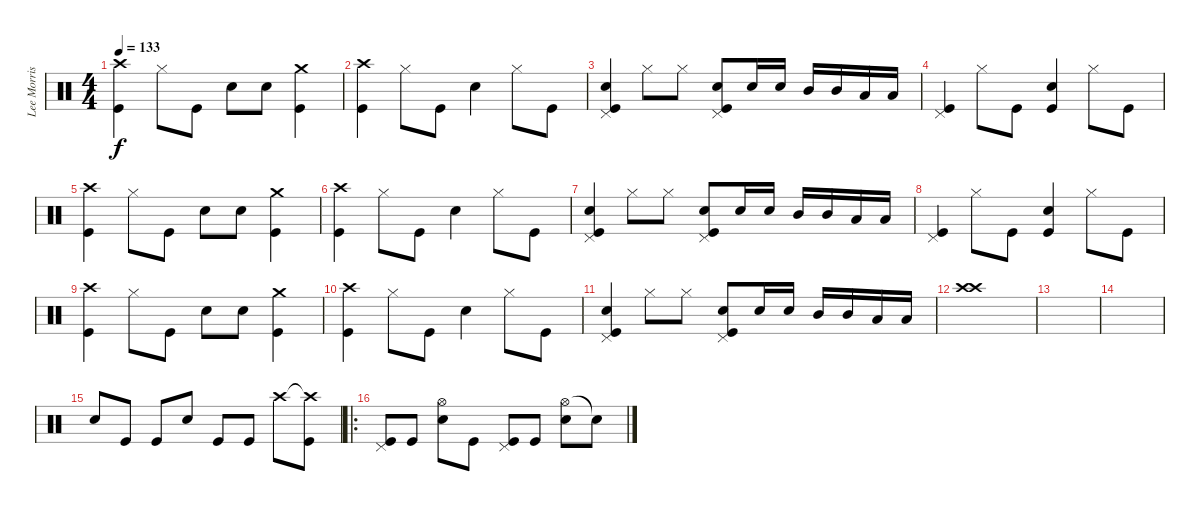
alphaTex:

\track ("Lee Morris" "Lee Morris") {instrument percussion}
\staff {score}
\articulation defaults
\ts (4 4)
\tempo 133
\clef neutral
\ks c
("Crash high (hit)" "Kick (hit)").4{dy f} "Hi-Hat (closed)".8 "Kick (hit)".8 "Electric Snare (hit)".8 "Electric Snare (hit)".8 ("Crash medium (hit)" "Kick (hit)").4 |
("Crash high (hit)" "Kick (hit)").4 "Hi-Hat (closed)".8 "Kick (hit)".8 "Electric Snare (hit)".4 "Hi-Hat (closed)".8 "Kick (hit)".8 |
("Pedal Hi-Hat (hit)" "Electric Snare (hit)" "Kick (hit)").4 "Hi-Hat (closed)".8 "Hi-Hat (closed)".8 ("Pedal Hi-Hat (hit)" "Electric Snare (hit)" "Kick (hit)").8 "Electric Snare (hit)".16 "Electric Snare (hit)".16 "Mid Tom (hit)".16 "Mid Tom (hit)".16 "Low Tom (hit)".16 "Low Tom (hit)".16 |
("Pedal Hi-Hat (hit)" "Kick (hit)").4 "Hi-Hat (closed)".8 "Kick (hit)".8 ("Electric Snare (hit)" "Kick (hit)").4 "Hi-Hat (closed)".8 "Kick (hit)".8 |
("Crash high (hit)" "Kick (hit)").4 "Hi-Hat (closed)".8 "Kick (hit)".8 "Electric Snare (hit)".8 "Electric Snare (hit)".8 ("Crash medium (hit)" "Kick (hit)").4 |
("Crash high (hit)" "Kick (hit)").4 "Hi-Hat (closed)".8 "Kick (hit)".8 "Electric Snare (hit)".4 "Hi-Hat (closed)".8 "Kick (hit)".8 |
("Pedal Hi-Hat (hit)" "Electric Snare (hit)" "Kick (hit)").4 "Hi-Hat (closed)".8 "Hi-Hat (closed)".8 ("Pedal Hi-Hat (hit)" "Electric Snare (hit)" "Kick (hit)").8 "Electric Snare (hit)".16 "Electric Snare (hit)".16 "Mid Tom (hit)".16 "Mid Tom (hit)".16 "Low Tom (hit)".16 "Low Tom (hit)".16 |
("Pedal Hi-Hat (hit)" "Kick (hit)").4 "Hi-Hat (closed)".8 "Kick (hit)".8 ("Electric Snare (hit)" "Kick (hit)").4 "Hi-Hat (closed)".8 "Kick (hit)".8 |
("Crash high (hit)" "Kick (hit)").4 "Hi-Hat (closed)".8 "Kick (hit)".8 "Electric Snare (hit)".8 "Electric Snare (hit)".8 ("Crash medium (hit)" "Kick (hit)").4 |
("Crash high (hit)" "Kick (hit)").4 "Hi-Hat (closed)".8 "Kick (hit)".8 "Electric Snare (hit)".4 "Hi-Hat (closed)".8 "Kick (hit)".8 |
("Pedal Hi-Hat (hit)" "Electric Snare (hit)" "Kick (hit)").4 "Hi-Hat (closed)".8 "Hi-Hat (closed)".8 ("Pedal Hi-Hat (hit)" "Electric Snare (hit)" "Kick (hit)").8 "Electric Snare (hit)".16 "Electric Snare (hit)".16 "Mid Tom (hit)".16 "Mid Tom (hit)".16 "Low Tom (hit)".16 "Low Tom (hit)".16 |
("Crash high (hit)" "Crash high (hit)").1 |
|
|
"Electric Snare (hit)".8 "Kick (hit)".8 "Kick (hit)".8 "Snare (hit) 2".8 "Kick (hit)".8 "Kick (hit)".8 "Crash high (hit)".8 ("Crash high (hit)"{t} "Kick (hit)").8 |
\ro
("Pedal Hi-Hat (hit)" "Kick (hit)").8 "Kick (hit)".8 ("Hi-Hat (open)" "Electric Snare (hit)").8 "Kick (hit)".8 ("Pedal Hi-Hat (hit)" "Kick (hit)").8 "Kick (hit)".8 ("Hi-Hat (open)" "Electric Snare (hit)").8 "Snare (hit)"{t}.8
